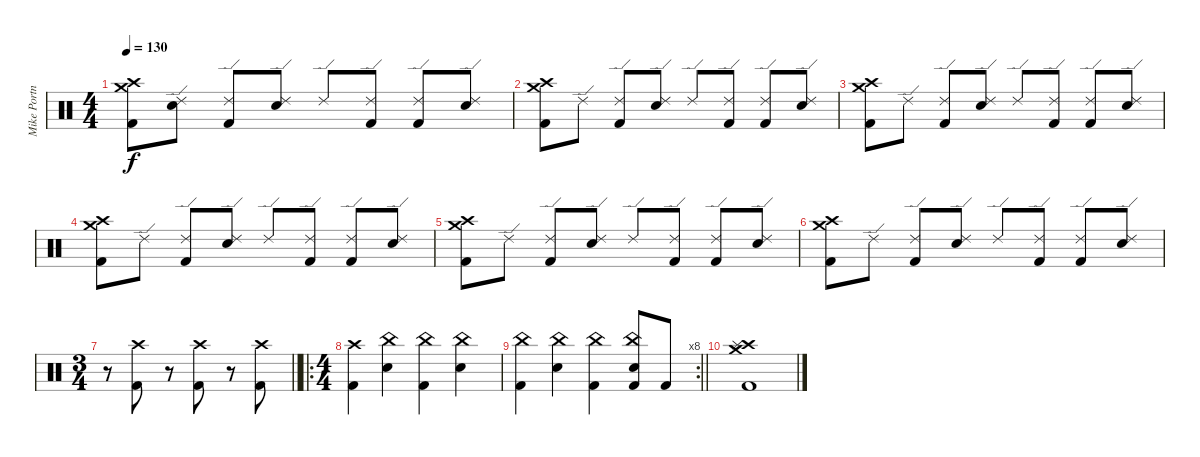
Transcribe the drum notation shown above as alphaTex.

\track ("Mike Portnoy" "Mike Portn") {instrument percussion}
\staff {score}
\articulation defaults
\ts (4 4)
\tempo 130
\clef neutral
\ks c
("Crash high (hit)" "Crash medium (hit)" "Kick (hit) 2").8{dy f} ("Ride (edge) 2" "Snare (hit) 2").8 ("Ride (edge) 2" "Kick (hit) 2").8 ("Ride (edge) 2" "Snare (hit) 2").8 "Ride (edge) 2".8 ("Ride (edge) 2" "Kick (hit) 2").8 ("Ride (edge) 2" "Kick (hit) 2").8 ("Ride (edge) 2" "Snare (hit) 2").8 |
("Crash high (hit)" "Crash medium (hit)" "Kick (hit) 2").8 "Ride (edge) 2".8 ("Ride (edge) 2" "Kick (hit) 2").8 ("Ride (edge) 2" "Snare (hit) 2").8 "Ride (edge) 2".8 ("Ride (edge) 2" "Kick (hit) 2").8 ("Ride (edge) 2" "Kick (hit) 2").8 ("Ride (edge) 2" "Snare (hit) 2").8 |
("Crash high (hit)" "Crash medium (hit)" "Kick (hit) 2").8 "Ride (edge) 2".8 ("Ride (edge) 2" "Kick (hit) 2").8 ("Ride (edge) 2" "Snare (hit) 2").8 "Ride (edge) 2".8 ("Ride (edge) 2" "Kick (hit) 2").8 ("Ride (edge) 2" "Kick (hit) 2").8 ("Ride (edge) 2" "Snare (hit) 2").8 |
("Crash high (hit)" "Crash medium (hit)" "Kick (hit) 2").8 "Ride (edge) 2".8 ("Ride (edge) 2" "Kick (hit) 2").8 ("Ride (edge) 2" "Snare (hit) 2").8 "Ride (edge) 2".8 ("Ride (edge) 2" "Kick (hit) 2").8 ("Ride (edge) 2" "Kick (hit) 2").8 ("Ride (edge) 2" "Snare (hit) 2").8 |
("Crash high (hit)" "Crash medium (hit)" "Kick (hit) 2").8 "Ride (edge) 2".8 ("Ride (edge) 2" "Kick (hit) 2").8 ("Ride (edge) 2" "Snare (hit) 2").8 "Ride (edge) 2".8 ("Ride (edge) 2" "Kick (hit) 2").8 ("Ride (edge) 2" "Kick (hit) 2").8 ("Ride (edge) 2" "Snare (hit) 2").8 |
("Crash high (hit)" "Crash medium (hit)" "Kick (hit) 2").8 "Ride (edge) 2".8 ("Ride (edge) 2" "Kick (hit) 2").8 ("Ride (edge) 2" "Snare (hit) 2").8 "Ride (edge) 2".8 ("Ride (edge) 2" "Kick (hit) 2").8 ("Ride (edge) 2" "Kick (hit) 2").8 ("Ride (edge) 2" "Snare (hit) 2").8 |
\ts (3 4)
\barLineRight lightlight
r.8{volume 0} ("Crash high (hit)" "Kick (hit) 2").8{volume 16} r.8{volume 0} ("Crash high (hit)" "Kick (hit) 2").8{volume 16} r.8{volume 0} ("Crash high (hit)" "Kick (hit) 2").8{volume 16} |
\ro
\ts (4 4)
("Crash high (hit)" "Kick (hit) 2").4 ("China (hit)" "Electric Snare (hit)").4 ("China (hit)" "Kick (hit) 2").4 ("China (hit)" "Electric Snare (hit)").4 |
\rc 8
\barLineRight lightlight
("China (hit)" "Kick (hit) 2").4 ("China (hit)" "Electric Snare (hit)").4 ("China (hit)" "Kick (hit) 2").4 ("China (hit)" "Electric Snare (hit)" "Kick (hit) 2").8 "Kick (hit) 2".8 |
("Crash high (hit)" "Splash (hit)" "Crash medium (hit)" "Kick (hit) 2").1
